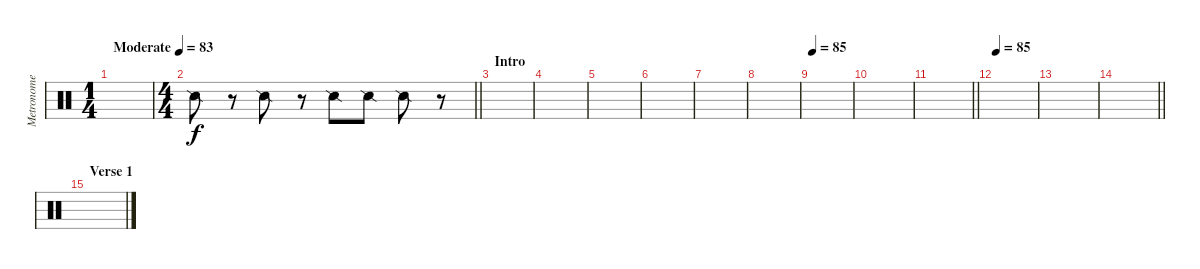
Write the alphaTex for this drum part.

\track ("Metronome" "Metronome") {instrument percussion}
\staff {score}
\articulation defaults
\ts (1 4)
\tempo (83 "Moderate")
\clef neutral
\ks c
|
\ts (4 4)
\barLineRight lightlight "Snare (side stick) 2".8
r.8 "Snare (side stick) 2".8 r.8 "Snare (side stick) 2".8 "Snare (side stick) 2".8 "Snare (side stick) 2".8 r.8 |
\section ("" "Intro")
|
|
|
|
|
|
\tempo 85
|
|
\barLineRight lightlight
|
\tempo 85
|
|
\barLineRight lightlight
|
\section ("" "Verse 1")
